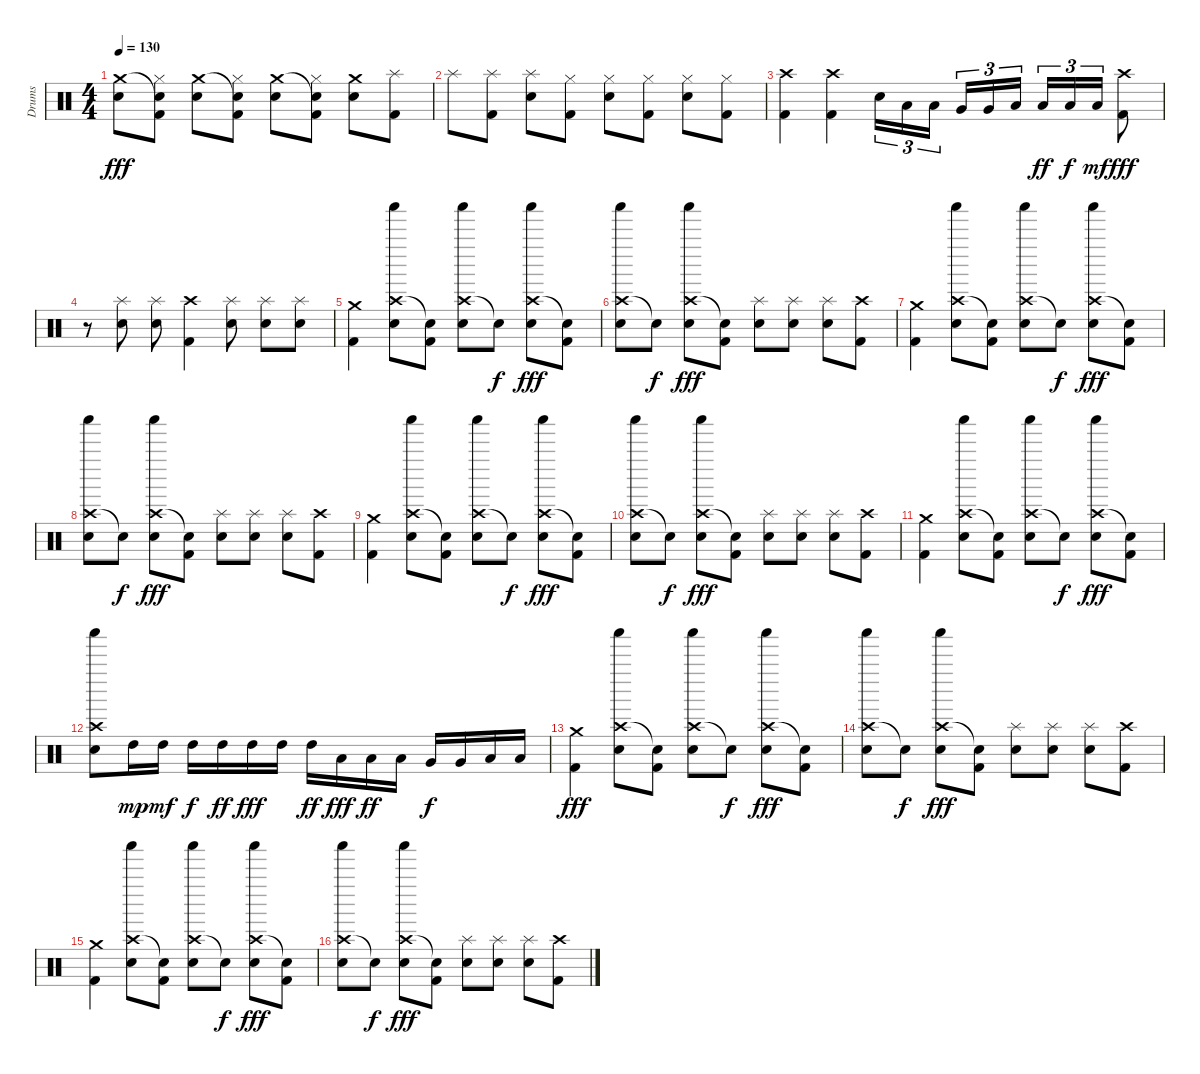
\track ("Drums" "Drums") {instrument percussion}
\staff {score}
\articulation defaults
\ts (4 4)
\tempo 130
\clef neutral
\ks c
("Crash medium (hit)" "Snare (hit) 2").8{dy fff} ("Snare (hit)"{t} "Hi-Hat (closed)" "Kick (hit) 2").8 ("Crash medium (hit)" "Snare (hit) 2").8 ("Snare (hit)"{t} "Hi-Hat (closed)" "Kick (hit) 2").8 ("Crash medium (hit)" "Snare (hit) 2").8 ("Snare (hit)"{t} "Hi-Hat (closed)" "Kick (hit) 2").8 ("Crash medium (hit)" "Snare (hit) 2").8 ("Splash (hit)" "Kick (hit) 2").8 |
"Splash (hit)".8 ("Splash (hit)" "Kick (hit) 2").8 ("Splash (hit)" "Snare (hit) 2").8 ("Hi-Hat (closed)" "Kick (hit) 2").8 ("Hi-Hat (closed)" "Snare (hit) 2").8 ("Hi-Hat (closed)" "Kick (hit) 2").8 ("Hi-Hat (closed)" "Snare (hit) 2").8 ("Hi-Hat (closed)" "Kick (hit) 2").8 |
("Crash high (hit)" "Kick (hit) 2").4 ("Crash high (hit)" "Kick (hit) 2").4 "Snare (hit) 2".16{tu (3 2)} "Low Tom (hit)".16{tu (3 2)} "Low Tom (hit)".16{tu (3 2) beam splitsecondary} "Very Low Tom (hit)".16{tu (3 2)} "Very Low Tom (hit)".16{tu (3 2)} "Low Floor Tom (hit)".16{tu (3 2)} "Low Floor Tom (hit)".16{tu (3 2) dy ff} "Low Floor Tom (hit)".16{tu (3 2) dy f} "Low Floor Tom (hit)".16{tu (3 2) dy mf} ("Crash high (hit)" "Kick (hit) 2").8{dy fff} |
r.8 ("Splash (hit)" "Snare (hit) 2").8 ("Splash (hit)" "Snare (hit) 2").8 ("Crash high (hit)" "Kick (hit) 2").4 ("Splash (hit)" "Snare (hit) 2").8 ("Splash (hit)" "Snare (hit) 2").8 ("Splash (hit)" "Snare (hit) 2").8 |
("Crash medium (hit)" "Kick (hit) 2").4 ("Crash high (hit)" "Shaker (hit)" "Snare (hit) 2").8 ("Snare (hit)"{t} "Kick (hit) 2").8 ("Crash high (hit)" "Shaker (hit)" "Snare (hit) 2").8 "Snare (hit)"{t}.8{dy f} ("Crash high (hit)" "Shaker (hit)" "Snare (hit) 2").8{dy fff} ("Snare (hit)"{t} "Kick (hit) 2").8 |
("Crash high (hit)" "Shaker (hit)" "Snare (hit) 2").8 "Snare (hit)"{t}.8{dy f} ("Crash high (hit)" "Shaker (hit)" "Snare (hit) 2").8{dy fff} ("Snare (hit)"{t} "Kick (hit) 2").8 ("Splash (hit)" "Snare (hit) 2").8 ("Splash (hit)" "Snare (hit) 2").8 ("Splash (hit)" "Snare (hit) 2").8 ("Crash high (hit)" "Kick (hit) 2").8 |
("Crash medium (hit)" "Kick (hit) 2").4 ("Crash high (hit)" "Shaker (hit)" "Snare (hit) 2").8 ("Snare (hit)"{t} "Kick (hit) 2").8 ("Crash high (hit)" "Shaker (hit)" "Snare (hit) 2").8 "Snare (hit)"{t}.8{dy f} ("Crash high (hit)" "Shaker (hit)" "Snare (hit) 2").8{dy fff} ("Snare (hit)"{t} "Kick (hit) 2").8 |
("Crash high (hit)" "Shaker (hit)" "Snare (hit) 2").8 "Snare (hit)"{t}.8{dy f} ("Crash high (hit)" "Shaker (hit)" "Snare (hit) 2").8{dy fff} ("Snare (hit)"{t} "Kick (hit) 2").8 ("Splash (hit)" "Snare (hit) 2").8 ("Splash (hit)" "Snare (hit) 2").8 ("Splash (hit)" "Snare (hit) 2").8 ("Crash high (hit)" "Kick (hit) 2").8 |
("Crash medium (hit)" "Kick (hit) 2").4 ("Crash high (hit)" "Shaker (hit)" "Snare (hit) 2").8 ("Snare (hit)"{t} "Kick (hit) 2").8 ("Crash high (hit)" "Shaker (hit)" "Snare (hit) 2").8 "Snare (hit)"{t}.8{dy f} ("Crash high (hit)" "Shaker (hit)" "Snare (hit) 2").8{dy fff} ("Snare (hit)"{t} "Kick (hit) 2").8 |
("Crash high (hit)" "Shaker (hit)" "Snare (hit) 2").8 "Snare (hit)"{t}.8{dy f} ("Crash high (hit)" "Shaker (hit)" "Snare (hit) 2").8{dy fff} ("Snare (hit)"{t} "Kick (hit) 2").8 ("Splash (hit)" "Snare (hit) 2").8 ("Splash (hit)" "Snare (hit) 2").8 ("Splash (hit)" "Snare (hit) 2").8 ("Crash high (hit)" "Kick (hit) 2").8 |
("Crash medium (hit)" "Kick (hit) 2").4 ("Crash high (hit)" "Shaker (hit)" "Snare (hit) 2").8 ("Snare (hit)"{t} "Kick (hit) 2").8 ("Crash high (hit)" "Shaker (hit)" "Snare (hit) 2").8 "Snare (hit)"{t}.8{dy f} ("Crash high (hit)" "Shaker (hit)" "Snare (hit) 2").8{dy fff} ("Snare (hit)"{t} "Kick (hit) 2").8 |
("Crash high (hit)" "Shaker (hit)" "Snare (hit) 2").8 "High Tom (hit)".16{dy mp} "High Tom (hit)".16{dy mf} "High Tom (hit)".16{dy f} "High Tom (hit)".16{dy ff} "High Tom (hit)".16{dy fff} "High Tom (hit)".16 "High Tom (hit)".16{dy ff} "Low Tom (hit)".16{dy fff} "Low Tom (hit)".16{dy ff} "Low Tom (hit)".16 "Very Low Tom (hit)".16{dy f} "Very Low Tom (hit)".16 "Low Floor Tom (hit)".16 "Low Floor Tom (hit)".16 |
("Crash medium (hit)" "Kick (hit) 2").4{dy fff} ("Crash high (hit)" "Shaker (hit)" "Snare (hit) 2").8 ("Snare (hit)"{t} "Kick (hit) 2").8 ("Crash high (hit)" "Shaker (hit)" "Snare (hit) 2").8 "Snare (hit)"{t}.8{dy f} ("Crash high (hit)" "Shaker (hit)" "Snare (hit) 2").8{dy fff} ("Snare (hit)"{t} "Kick (hit) 2").8 |
("Crash high (hit)" "Shaker (hit)" "Snare (hit) 2").8 "Snare (hit)"{t}.8{dy f} ("Crash high (hit)" "Shaker (hit)" "Snare (hit) 2").8{dy fff} ("Snare (hit)"{t} "Kick (hit) 2").8 ("Splash (hit)" "Snare (hit) 2").8 ("Splash (hit)" "Snare (hit) 2").8 ("Splash (hit)" "Snare (hit) 2").8 ("Crash high (hit)" "Kick (hit) 2").8 |
("Crash medium (hit)" "Kick (hit) 2").4 ("Crash high (hit)" "Shaker (hit)" "Snare (hit) 2").8 ("Snare (hit)"{t} "Kick (hit) 2").8 ("Crash high (hit)" "Shaker (hit)" "Snare (hit) 2").8 "Snare (hit)"{t}.8{dy f} ("Crash high (hit)" "Shaker (hit)" "Snare (hit) 2").8{dy fff} ("Snare (hit)"{t} "Kick (hit) 2").8 |
("Crash high (hit)" "Shaker (hit)" "Snare (hit) 2").8 "Snare (hit)"{t}.8{dy f} ("Crash high (hit)" "Shaker (hit)" "Snare (hit) 2").8{dy fff} ("Snare (hit)"{t} "Kick (hit) 2").8 ("Splash (hit)" "Snare (hit) 2").8 ("Splash (hit)" "Snare (hit) 2").8 ("Splash (hit)" "Snare (hit) 2").8 ("Crash high (hit)" "Kick (hit) 2").8
